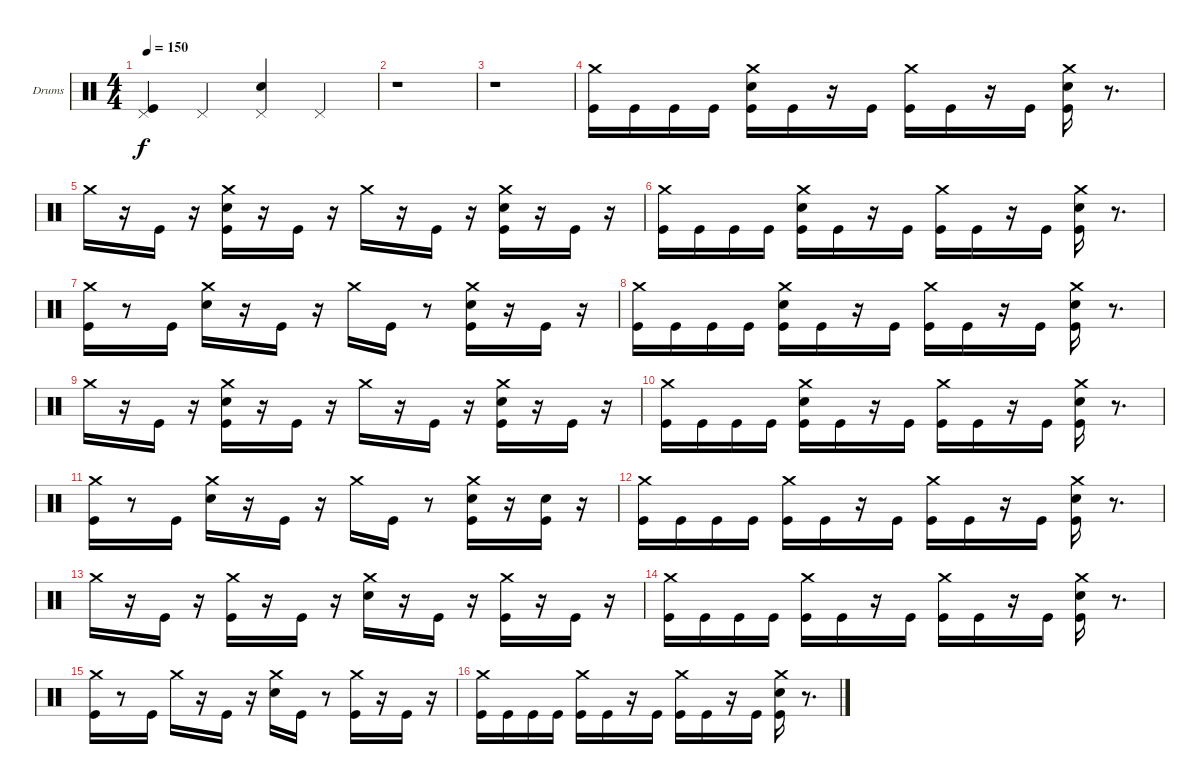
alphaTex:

\bracketExtendMode groupsimilarinstruments
\firstSystemTrackNameOrientation horizontal
\otherSystemsTrackNameOrientation horizontal
\track ("Rolo" "Drums") {instrument percussion}
\staff {score}
\articulation defaults
\ts (4 4)
\tempo 150
\clef neutral
\ks c
("Pedal Hi-Hat (hit)" "Kick (hit)").4{dy f} "Pedal Hi-Hat (hit)".4 ("Pedal Hi-Hat (hit)" "Snare (hit) 2").4 "Pedal Hi-Hat (hit)".4 |
r.1 |
r.1 |
("Crash medium (hit)" "Kick (hit)").16 "Kick (hit)".16 "Kick (hit)".16 "Kick (hit)".16 ("Crash medium (hit)" "Snare (hit) 2" "Kick (hit)").16 "Kick (hit)".16 r.16 "Kick (hit)".16 ("Crash medium (hit)" "Kick (hit)").16 "Kick (hit)".16 r.16 "Kick (hit)".16 ("Crash medium (hit)" "Snare (hit) 2" "Kick (hit)").16 r.8{d} |
"Crash medium (hit)".16 r.16 "Kick (hit)".16 r.16 ("Crash medium (hit)" "Snare (hit) 2" "Kick (hit)").16 r.16 "Kick (hit)".16 r.16 "Crash medium (hit)".16 r.16 "Kick (hit)".16 r.16 ("Crash medium (hit)" "Snare (hit) 2" "Kick (hit)").16 r.16 "Kick (hit)".16 r.16 |
("Crash medium (hit)" "Kick (hit)").16 "Kick (hit)".16 "Kick (hit)".16 "Kick (hit)".16 ("Crash medium (hit)" "Snare (hit) 2" "Kick (hit)").16 "Kick (hit)".16 r.16 "Kick (hit)".16 ("Crash medium (hit)" "Kick (hit)").16 "Kick (hit)".16 r.16 "Kick (hit)".16 ("Crash medium (hit)" "Snare (hit) 2" "Kick (hit)").16 r.8{d} |
("Crash medium (hit)" "Kick (hit)").16 r.8 "Kick (hit)".16 ("Crash medium (hit)" "Snare (hit) 2").16 r.16 "Kick (hit)".16 r.16 "Crash medium (hit)".16 "Kick (hit)".16 r.8 ("Crash medium (hit)" "Snare (hit) 2" "Kick (hit)").16 r.16 "Kick (hit)".16 r.16 |
("Crash medium (hit)" "Kick (hit)").16 "Kick (hit)".16 "Kick (hit)".16 "Kick (hit)".16 ("Crash medium (hit)" "Snare (hit) 2" "Kick (hit)").16 "Kick (hit)".16 r.16 "Kick (hit)".16 ("Crash medium (hit)" "Kick (hit)").16 "Kick (hit)".16 r.16 "Kick (hit)".16 ("Crash medium (hit)" "Snare (hit) 2" "Kick (hit)").16 r.8{d} |
"Crash medium (hit)".16 r.16 "Kick (hit)".16 r.16 ("Crash medium (hit)" "Snare (hit) 2" "Kick (hit)").16 r.16 "Kick (hit)".16 r.16 "Crash medium (hit)".16 r.16 "Kick (hit)".16 r.16 ("Crash medium (hit)" "Snare (hit) 2" "Kick (hit)").16 r.16 "Kick (hit)".16 r.16 |
("Crash medium (hit)" "Kick (hit)").16 "Kick (hit)".16 "Kick (hit)".16 "Kick (hit)".16 ("Crash medium (hit)" "Snare (hit) 2" "Kick (hit)").16 "Kick (hit)".16 r.16 "Kick (hit)".16 ("Crash medium (hit)" "Kick (hit)").16 "Kick (hit)".16 r.16 "Kick (hit)".16 ("Crash medium (hit)" "Snare (hit) 2" "Kick (hit)").16 r.8{d} |
("Crash medium (hit)" "Kick (hit)").16 r.8 "Kick (hit)".16 ("Crash medium (hit)" "Snare (hit) 2").16 r.16 "Kick (hit)".16 r.16 "Crash medium (hit)".16 "Kick (hit)".16 r.8 ("Crash medium (hit)" "Snare (hit) 2" "Kick (hit)").16 r.16 ("Snare (hit) 2" "Kick (hit)").16 r.16 |
("Crash medium (hit)" "Kick (hit)").16 "Kick (hit)".16 "Kick (hit)".16 "Kick (hit)".16 ("Crash medium (hit)" "Kick (hit)").16 "Kick (hit)".16 r.16 "Kick (hit)".16 ("Crash medium (hit)" "Kick (hit)").16 "Kick (hit)".16 r.16 "Kick (hit)".16 ("Crash medium (hit)" "Snare (hit) 2" "Kick (hit)").16 r.8{d} |
"Crash medium (hit)".16 r.16 "Kick (hit)".16 r.16 ("Crash medium (hit)" "Kick (hit)").16 r.16 "Kick (hit)".16 r.16 ("Crash medium (hit)" "Snare (hit) 2").16 r.16 "Kick (hit)".16 r.16 ("Crash medium (hit)" "Kick (hit)").16 r.16 "Kick (hit)".16 r.16 |
("Crash medium (hit)" "Kick (hit)").16 "Kick (hit)".16 "Kick (hit)".16 "Kick (hit)".16 ("Crash medium (hit)" "Kick (hit)").16 "Kick (hit)".16 r.16 "Kick (hit)".16 ("Crash medium (hit)" "Kick (hit)").16 "Kick (hit)".16 r.16 "Kick (hit)".16 ("Crash medium (hit)" "Snare (hit) 2" "Kick (hit)").16 r.8{d} |
("Crash medium (hit)" "Kick (hit)").16 r.8 "Kick (hit)".16 "Crash medium (hit)".16 r.16 "Kick (hit)".16 r.16 ("Crash medium (hit)" "Snare (hit) 2").16 "Kick (hit)".16 r.8 ("Crash medium (hit)" "Kick (hit)").16 r.16 "Kick (hit)".16 r.16 |
("Crash medium (hit)" "Kick (hit)").16 "Kick (hit)".16 "Kick (hit)".16 "Kick (hit)".16 ("Crash medium (hit)" "Kick (hit)").16 "Kick (hit)".16 r.16 "Kick (hit)".16 ("Crash medium (hit)" "Kick (hit)").16 "Kick (hit)".16 r.16 "Kick (hit)".16 ("Crash medium (hit)" "Snare (hit) 2" "Kick (hit)").16 r.8{d}
